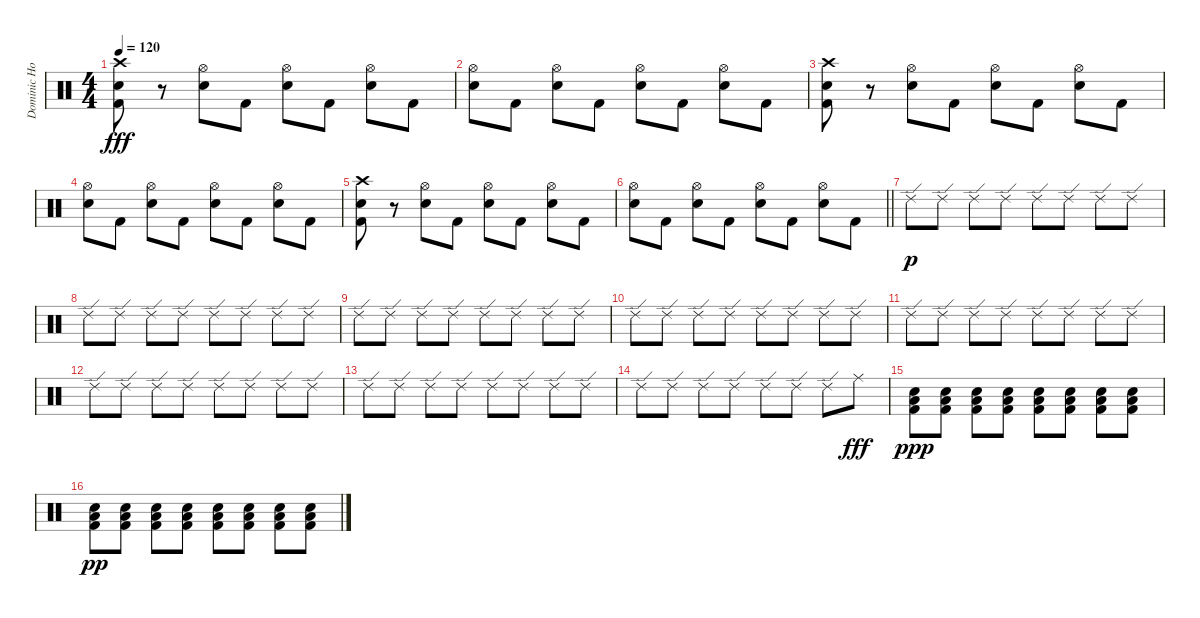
\track ("Dominic Howard" "Dominic Ho") {instrument percussion}
\staff {score}
\articulation defaults
\ts (4 4)
\tempo 120
\clef neutral
\ks c
("Crash high (hit)" "Snare (hit) 2" "Kick (hit) 2").8{dy fff} r.8 ("Hi-Hat (open)" "Snare (hit) 2").8 "Kick (hit) 2".8 ("Hi-Hat (open)" "Snare (hit) 2").8 "Kick (hit) 2".8 ("Hi-Hat (open)" "Snare (hit) 2").8 "Kick (hit) 2".8 |
("Hi-Hat (open)" "Snare (hit) 2").8 "Kick (hit) 2".8 ("Hi-Hat (open)" "Snare (hit) 2").8 "Kick (hit) 2".8 ("Hi-Hat (open)" "Snare (hit) 2").8 "Kick (hit) 2".8 ("Hi-Hat (open)" "Snare (hit) 2").8 "Kick (hit) 2".8 |
("Crash high (hit)" "Snare (hit) 2" "Kick (hit) 2").8 r.8 ("Hi-Hat (open)" "Snare (hit) 2").8 "Kick (hit) 2".8 ("Hi-Hat (open)" "Snare (hit) 2").8 "Kick (hit) 2".8 ("Hi-Hat (open)" "Snare (hit) 2").8 "Kick (hit) 2".8 |
("Hi-Hat (open)" "Snare (hit) 2").8 "Kick (hit) 2".8 ("Hi-Hat (open)" "Snare (hit) 2").8 "Kick (hit) 2".8 ("Hi-Hat (open)" "Snare (hit) 2").8 "Kick (hit) 2".8 ("Hi-Hat (open)" "Snare (hit) 2").8 "Kick (hit) 2".8 |
("Crash high (hit)" "Snare (hit) 2" "Kick (hit) 2").8 r.8 ("Hi-Hat (open)" "Snare (hit) 2").8 "Kick (hit) 2".8 ("Hi-Hat (open)" "Snare (hit) 2").8 "Kick (hit) 2".8 ("Hi-Hat (open)" "Snare (hit) 2").8 "Kick (hit) 2".8 |
\barLineRight lightlight
("Hi-Hat (open)" "Snare (hit) 2").8 "Kick (hit) 2".8 ("Hi-Hat (open)" "Snare (hit) 2").8 "Kick (hit) 2".8 ("Hi-Hat (open)" "Snare (hit) 2").8 "Kick (hit) 2".8 ("Hi-Hat (open)" "Snare (hit) 2").8 "Kick (hit) 2".8 |
"Ride (edge) 2".8{dy p} "Ride (edge) 2".8 "Ride (edge) 2".8 "Ride (edge) 2".8 "Ride (edge) 2".8 "Ride (edge) 2".8 "Ride (edge) 2".8 "Ride (edge) 2".8 |
"Ride (edge) 2".8 "Ride (edge) 2".8 "Ride (edge) 2".8 "Ride (edge) 2".8 "Ride (edge) 2".8 "Ride (edge) 2".8 "Ride (edge) 2".8 "Ride (edge) 2".8 |
"Ride (edge) 2".8 "Ride (edge) 2".8 "Ride (edge) 2".8 "Ride (edge) 2".8 "Ride (edge) 2".8 "Ride (edge) 2".8 "Ride (edge) 2".8 "Ride (edge) 2".8 |
"Ride (edge) 2".8 "Ride (edge) 2".8 "Ride (edge) 2".8 "Ride (edge) 2".8 "Ride (edge) 2".8 "Ride (edge) 2".8 "Ride (edge) 2".8 "Ride (edge) 2".8 |
"Ride (edge) 2".8 "Ride (edge) 2".8 "Ride (edge) 2".8 "Ride (edge) 2".8 "Ride (edge) 2".8 "Ride (edge) 2".8 "Ride (edge) 2".8 "Ride (edge) 2".8 |
"Ride (edge) 2".8 "Ride (edge) 2".8 "Ride (edge) 2".8 "Ride (edge) 2".8 "Ride (edge) 2".8 "Ride (edge) 2".8 "Ride (edge) 2".8 "Ride (edge) 2".8 |
"Ride (edge) 2".8 "Ride (edge) 2".8 "Ride (edge) 2".8 "Ride (edge) 2".8 "Ride (edge) 2".8 "Ride (edge) 2".8 "Ride (edge) 2".8 "Ride (edge) 2".8 |
"Ride (edge) 2".8 "Ride (edge) 2".8 "Ride (edge) 2".8 "Ride (edge) 2".8 "Ride (edge) 2".8 "Ride (edge) 2".8 "Ride (edge) 2".8 "Ride (middle)".8{dy fff} |
("Snare (hit) 2" "Low Floor Tom (hit)" "Kick (hit) 2").8{dy ppp} ("Snare (hit) 2" "Low Floor Tom (hit)" "Kick (hit) 2").8 ("Snare (hit) 2" "Low Floor Tom (hit)" "Kick (hit) 2").8 ("Snare (hit) 2" "Low Floor Tom (hit)" "Kick (hit) 2").8 ("Snare (hit) 2" "Low Floor Tom (hit)" "Kick (hit) 2").8 ("Snare (hit) 2" "Low Floor Tom (hit)" "Kick (hit) 2").8 ("Snare (hit) 2" "Low Floor Tom (hit)" "Kick (hit) 2").8 ("Snare (hit) 2" "Low Floor Tom (hit)" "Kick (hit) 2").8 |
("Snare (hit) 2" "Low Floor Tom (hit)" "Kick (hit) 2").8{dy pp} ("Snare (hit) 2" "Low Floor Tom (hit)" "Kick (hit) 2").8 ("Snare (hit) 2" "Low Floor Tom (hit)" "Kick (hit) 2").8 ("Snare (hit) 2" "Low Floor Tom (hit)" "Kick (hit) 2").8 ("Snare (hit) 2" "Low Floor Tom (hit)" "Kick (hit) 2").8 ("Snare (hit) 2" "Low Floor Tom (hit)" "Kick (hit) 2").8 ("Snare (hit) 2" "Low Floor Tom (hit)" "Kick (hit) 2").8 ("Snare (hit) 2" "Low Floor Tom (hit)" "Kick (hit) 2").8
